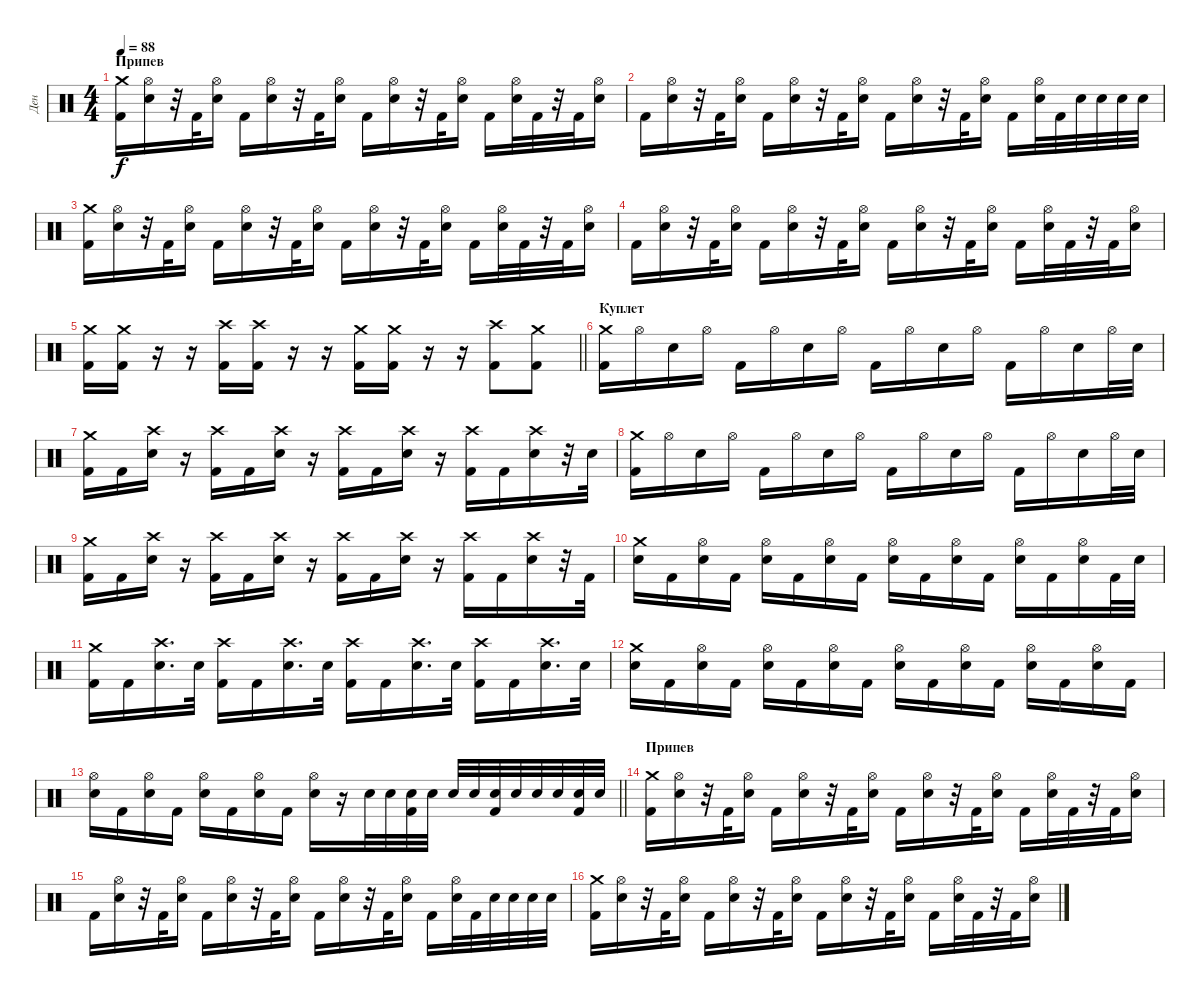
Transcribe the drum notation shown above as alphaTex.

\track ("Ден" "Ден") {instrument percussion}
\staff {score}
\articulation defaults
\ts (4 4)
\section ("" "Припев")
\tempo 88
\clef neutral
\ks c
("Kick (hit) 2" "Crash medium (hit)").16{dy f} ("Electric Snare (hit)" "Hi-Hat (open)").16 r.32 "Kick (hit) 2".32 ("Electric Snare (hit)" "Hi-Hat (open)").16 "Kick (hit) 2".16 ("Electric Snare (hit)" "Hi-Hat (open)").16 r.32 "Kick (hit) 2".32 ("Electric Snare (hit)" "Hi-Hat (open)").16 "Kick (hit) 2".16 ("Electric Snare (hit)" "Hi-Hat (open)").16 r.32 "Kick (hit) 2".32 ("Electric Snare (hit)" "Hi-Hat (open)").16 "Kick (hit) 2".16 ("Electric Snare (hit)" "Hi-Hat (open)").32 "Kick (hit) 2".32 r.32 "Kick (hit) 2".32 ("Electric Snare (hit)" "Hi-Hat (open)").16 |
"Kick (hit) 2".16 ("Electric Snare (hit)" "Hi-Hat (open)").16 r.32 "Kick (hit) 2".32 ("Electric Snare (hit)" "Hi-Hat (open)").16 "Kick (hit) 2".16 ("Electric Snare (hit)" "Hi-Hat (open)").16 r.32 "Kick (hit) 2".32 ("Electric Snare (hit)" "Hi-Hat (open)").16 "Kick (hit) 2".16 ("Electric Snare (hit)" "Hi-Hat (open)").16 r.32 "Kick (hit) 2".32 ("Electric Snare (hit)" "Hi-Hat (open)").16 "Kick (hit) 2".16 ("Electric Snare (hit)" "Hi-Hat (open)").32 "Kick (hit) 2".32 "Electric Snare (hit)".32 "Electric Snare (hit)".32 "Electric Snare (hit)".32 "Electric Snare (hit)".32 |
("Kick (hit) 2" "Crash medium (hit)").16 ("Electric Snare (hit)" "Hi-Hat (open)").16 r.32 "Kick (hit) 2".32 ("Electric Snare (hit)" "Hi-Hat (open)").16 "Kick (hit) 2".16 ("Electric Snare (hit)" "Hi-Hat (open)").16 r.32 "Kick (hit) 2".32 ("Electric Snare (hit)" "Hi-Hat (open)").16 "Kick (hit) 2".16 ("Electric Snare (hit)" "Hi-Hat (open)").16 r.32 "Kick (hit) 2".32 ("Electric Snare (hit)" "Hi-Hat (open)").16 "Kick (hit) 2".16 ("Electric Snare (hit)" "Hi-Hat (open)").32 "Kick (hit) 2".32 r.32 "Kick (hit) 2".32 ("Electric Snare (hit)" "Hi-Hat (open)").16 |
"Kick (hit) 2".16 ("Electric Snare (hit)" "Hi-Hat (open)").16 r.32 "Kick (hit) 2".32 ("Electric Snare (hit)" "Hi-Hat (open)").16 "Kick (hit) 2".16 ("Electric Snare (hit)" "Hi-Hat (open)").16 r.32 "Kick (hit) 2".32 ("Electric Snare (hit)" "Hi-Hat (open)").16 "Kick (hit) 2".16 ("Electric Snare (hit)" "Hi-Hat (open)").16 r.32 "Kick (hit) 2".32 ("Electric Snare (hit)" "Hi-Hat (open)").16 "Kick (hit) 2".16 ("Electric Snare (hit)" "Hi-Hat (open)").32 "Kick (hit) 2".32 r.32 "Kick (hit) 2".32 ("Electric Snare (hit)" "Hi-Hat (open)").16 |
\barLineRight lightlight
("Kick (hit) 2" "Crash medium (hit)").16 ("Kick (hit) 2" "Crash medium (hit)").16 r.16 r.16 ("Kick (hit) 2" "Crash high (hit)").16 ("Kick (hit) 2" "Crash high (hit)").16 r.16 r.16 ("Kick (hit) 2" "Crash medium (hit)").16 ("Kick (hit) 2" "Crash medium (hit)").16 r.16 r.16 ("Kick (hit) 2" "Crash high (hit)").8 ("Kick (hit) 2" "Crash medium (hit)").8 |
\section ("" "Куплет")
("Crash medium (hit)" "Kick (hit) 2").16 "Hi-Hat (open)".16 "Electric Snare (hit)".16 "Hi-Hat (open)".16 "Kick (hit) 2".16 "Hi-Hat (open)".16 "Electric Snare (hit)".16 "Hi-Hat (open)".16 "Kick (hit) 2".16 "Hi-Hat (open)".16 "Electric Snare (hit)".16 "Hi-Hat (open)".16 "Kick (hit) 2".16 "Hi-Hat (open)".16 "Electric Snare (hit)".16 "Hi-Hat (open)".32 "Electric Snare (hit)".32 |
("Crash medium (hit)" "Kick (hit) 2").16 "Kick (hit) 2".16 ("Crash high (hit)" "Electric Snare (hit)").16 r.16 ("Crash high (hit)" "Kick (hit) 2").16 "Kick (hit) 2".16 ("Crash high (hit)" "Electric Snare (hit)").16 r.16 ("Crash high (hit)" "Kick (hit) 2").16 "Kick (hit) 2".16 ("Crash high (hit)" "Electric Snare (hit)").16 r.16 ("Crash high (hit)" "Kick (hit) 2").16 "Kick (hit) 2".16 ("Crash high (hit)" "Electric Snare (hit)").16 r.32 "Electric Snare (hit)".32 |
("Crash medium (hit)" "Kick (hit) 2").16 "Hi-Hat (open)".16 "Electric Snare (hit)".16 "Hi-Hat (open)".16 "Kick (hit) 2".16 "Hi-Hat (open)".16 "Electric Snare (hit)".16 "Hi-Hat (open)".16 "Kick (hit) 2".16 "Hi-Hat (open)".16 "Electric Snare (hit)".16 "Hi-Hat (open)".16 "Kick (hit) 2".16 "Hi-Hat (open)".16 "Electric Snare (hit)".16 "Hi-Hat (open)".32 "Electric Snare (hit)".32 |
("Crash medium (hit)" "Kick (hit) 2").16 "Kick (hit) 2".16 ("Crash high (hit)" "Electric Snare (hit)").16 r.16 ("Crash high (hit)" "Kick (hit) 2").16 "Kick (hit) 2".16 ("Crash high (hit)" "Electric Snare (hit)").16 r.16 ("Crash high (hit)" "Kick (hit) 2").16 "Kick (hit) 2".16 ("Crash high (hit)" "Electric Snare (hit)").16 r.16 ("Crash high (hit)" "Kick (hit) 2").16 "Kick (hit) 2".16 ("Crash high (hit)" "Electric Snare (hit)").16 r.32 "Kick (hit) 2".32 |
("Crash medium (hit)" "Electric Snare (hit)").16 "Kick (hit) 2".16 ("Hi-Hat (open)" "Electric Snare (hit)").16 "Kick (hit) 2".16 ("Hi-Hat (open)" "Electric Snare (hit)").16 "Kick (hit) 2".16 ("Hi-Hat (open)" "Electric Snare (hit)").16 "Kick (hit) 2".16 ("Hi-Hat (open)" "Electric Snare (hit)").16 "Kick (hit) 2".16 ("Hi-Hat (open)" "Electric Snare (hit)").16 "Kick (hit) 2".16 ("Hi-Hat (open)" "Electric Snare (hit)").16 "Kick (hit) 2".16 ("Hi-Hat (open)" "Electric Snare (hit)").16 "Kick (hit) 2".32 "Electric Snare (hit)".32 |
("Crash medium (hit)" "Kick (hit) 2").16 "Kick (hit) 2".16 ("Crash high (hit)" "Electric Snare (hit)").16{d} "Electric Snare (hit)".32 ("Crash high (hit)" "Kick (hit) 2").16 "Kick (hit) 2".16 ("Crash high (hit)" "Electric Snare (hit)").16{d} "Electric Snare (hit)".32 ("Crash high (hit)" "Kick (hit) 2").16 "Kick (hit) 2".16 ("Crash high (hit)" "Electric Snare (hit)").16{d} "Electric Snare (hit)".32 ("Crash high (hit)" "Kick (hit) 2").16 "Kick (hit) 2".16 ("Crash high (hit)" "Electric Snare (hit)").16{d} "Electric Snare (hit)".32 |
("Crash medium (hit)" "Electric Snare (hit)").16 "Kick (hit) 2".16 ("Hi-Hat (open)" "Electric Snare (hit)").16 "Kick (hit) 2".16 ("Hi-Hat (open)" "Electric Snare (hit)").16 "Kick (hit) 2".16 ("Hi-Hat (open)" "Electric Snare (hit)").16 "Kick (hit) 2".16 ("Hi-Hat (open)" "Electric Snare (hit)").16 "Kick (hit) 2".16 ("Hi-Hat (open)" "Electric Snare (hit)").16 "Kick (hit) 2".16 ("Hi-Hat (open)" "Electric Snare (hit)").16 "Kick (hit) 2".16 ("Hi-Hat (open)" "Electric Snare (hit)").16 "Kick (hit) 2".16 |
\barLineRight lightlight
("Hi-Hat (open)" "Electric Snare (hit)").16 "Kick (hit) 2".16 ("Hi-Hat (open)" "Electric Snare (hit)").16 "Kick (hit) 2".16 ("Hi-Hat (open)" "Electric Snare (hit)").16 "Kick (hit) 2".16 ("Hi-Hat (open)" "Electric Snare (hit)").16 "Kick (hit) 2".16 ("Hi-Hat (open)" "Electric Snare (hit)").16 r.16 "Electric Snare (hit)".32 "Electric Snare (hit)".32 ("Kick (hit) 2" "Electric Snare (hit)").32 "Electric Snare (hit)".32 "Electric Snare (hit)".32 "Electric Snare (hit)".32 ("Kick (hit) 2" "Electric Snare (hit)").32 "Electric Snare (hit)".32 "Electric Snare (hit)".32 "Electric Snare (hit)".32 ("Kick (hit) 2" "Electric Snare (hit)").32 "Electric Snare (hit)".32 |
\section ("" "Припев")
("Kick (hit) 2" "Crash medium (hit)").16 ("Electric Snare (hit)" "Hi-Hat (open)").16 r.32 "Kick (hit) 2".32 ("Electric Snare (hit)" "Hi-Hat (open)").16 "Kick (hit) 2".16 ("Electric Snare (hit)" "Hi-Hat (open)").16 r.32 "Kick (hit) 2".32 ("Electric Snare (hit)" "Hi-Hat (open)").16 "Kick (hit) 2".16 ("Electric Snare (hit)" "Hi-Hat (open)").16 r.32 "Kick (hit) 2".32 ("Electric Snare (hit)" "Hi-Hat (open)").16 "Kick (hit) 2".16 ("Electric Snare (hit)" "Hi-Hat (open)").32 "Kick (hit) 2".32 r.32 "Kick (hit) 2".32 ("Electric Snare (hit)" "Hi-Hat (open)").16 |
"Kick (hit) 2".16 ("Electric Snare (hit)" "Hi-Hat (open)").16 r.32 "Kick (hit) 2".32 ("Electric Snare (hit)" "Hi-Hat (open)").16 "Kick (hit) 2".16 ("Electric Snare (hit)" "Hi-Hat (open)").16 r.32 "Kick (hit) 2".32 ("Electric Snare (hit)" "Hi-Hat (open)").16 "Kick (hit) 2".16 ("Electric Snare (hit)" "Hi-Hat (open)").16 r.32 "Kick (hit) 2".32 ("Electric Snare (hit)" "Hi-Hat (open)").16 "Kick (hit) 2".16 ("Electric Snare (hit)" "Hi-Hat (open)").32 "Kick (hit) 2".32 "Electric Snare (hit)".32 "Electric Snare (hit)".32 "Electric Snare (hit)".32 "Electric Snare (hit)".32 |
("Kick (hit) 2" "Crash medium (hit)").16 ("Electric Snare (hit)" "Hi-Hat (open)").16 r.32 "Kick (hit) 2".32 ("Electric Snare (hit)" "Hi-Hat (open)").16 "Kick (hit) 2".16 ("Electric Snare (hit)" "Hi-Hat (open)").16 r.32 "Kick (hit) 2".32 ("Electric Snare (hit)" "Hi-Hat (open)").16 "Kick (hit) 2".16 ("Electric Snare (hit)" "Hi-Hat (open)").16 r.32 "Kick (hit) 2".32 ("Electric Snare (hit)" "Hi-Hat (open)").16 "Kick (hit) 2".16 ("Electric Snare (hit)" "Hi-Hat (open)").32 "Kick (hit) 2".32 r.32 "Kick (hit) 2".32 ("Electric Snare (hit)" "Hi-Hat (open)").16
